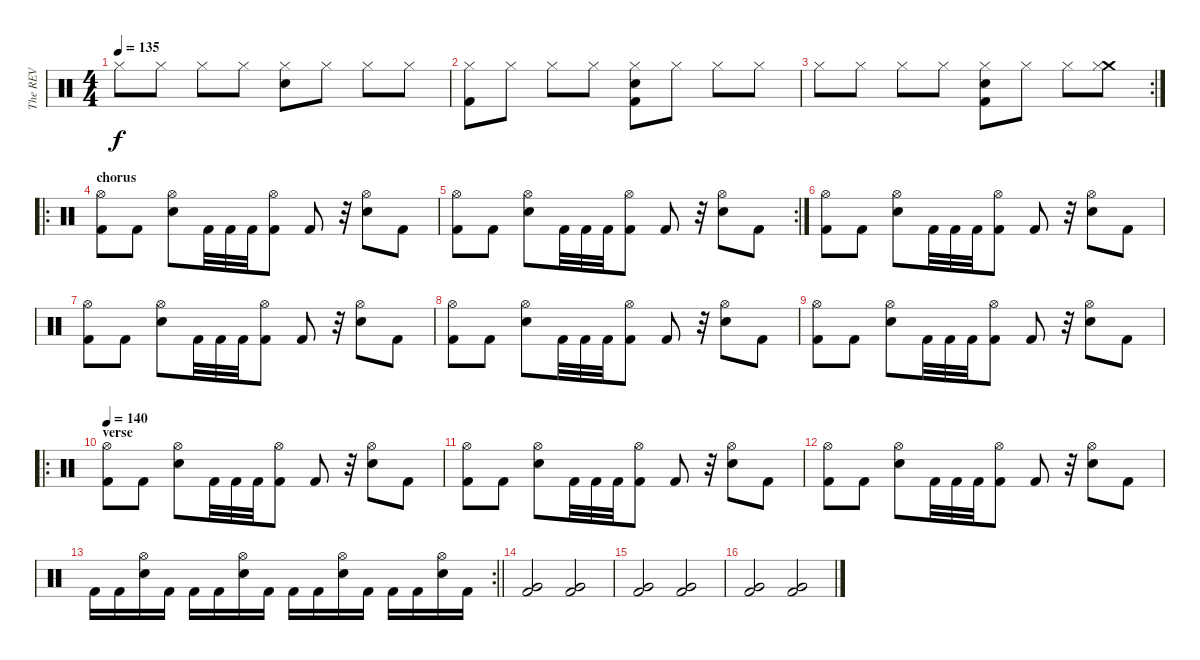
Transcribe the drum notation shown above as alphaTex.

\track ("The REV" "The REV") {instrument percussion}
\staff {score}
\articulation defaults
\ts (4 4)
\tempo 135
\clef neutral
\ks c "Hi-Hat (closed)".8{dy f} "Hi-Hat (closed)".8 "Hi-Hat (closed)".8 "Hi-Hat (closed)".8
("Hi-Hat (closed)" "Electric Snare (hit)").8 "Hi-Hat (closed)".8 "Hi-Hat (closed)".8 "Hi-Hat (closed)".8 |
("Hi-Hat (closed)" "Kick (hit) 2").8 "Hi-Hat (closed)".8 "Hi-Hat (closed)".8 "Hi-Hat (closed)".8 ("Hi-Hat (closed)" "Electric Snare (hit)" "Kick (hit) 2").8 "Hi-Hat (closed)".8 "Hi-Hat (closed)".8 "Hi-Hat (closed)".8 |
\rc 2 "Hi-Hat (closed)".8 "Hi-Hat (closed)".8 "Hi-Hat (closed)".8 "Hi-Hat (closed)".8
("Hi-Hat (closed)" "Electric Snare (hit)" "Kick (hit) 2").8 "Hi-Hat (closed)".8 "Hi-Hat (closed)".8 ("Crash medium (hit)" "Hi-Hat (closed)").8 |
\ro
\section ("" "chorus")
("Hi-Hat (open)" "Kick (hit) 2").8 "Kick (hit) 2".8 ("Hi-Hat (open)" "Electric Snare (hit)").8 "Kick (hit) 2".32 "Kick (hit) 2".32 "Kick (hit) 2".32 ("Hi-Hat (open)" "Kick (hit) 2").8 "Kick (hit) 2".8 r.32 ("Hi-Hat (open)" "Electric Snare (hit)").8 "Kick (hit) 2".8 |
\rc 2
("Hi-Hat (open)" "Kick (hit) 2").8 "Kick (hit) 2".8 ("Hi-Hat (open)" "Electric Snare (hit)").8 "Kick (hit) 2".32 "Kick (hit) 2".32 "Kick (hit) 2".32 ("Hi-Hat (open)" "Kick (hit) 2").8 "Kick (hit) 2".8 r.32 ("Hi-Hat (open)" "Electric Snare (hit)").8 "Kick (hit) 2".8 |
("Hi-Hat (open)" "Kick (hit) 2").8 "Kick (hit) 2".8 ("Hi-Hat (open)" "Electric Snare (hit)").8 "Kick (hit) 2".32 "Kick (hit) 2".32 "Kick (hit) 2".32 ("Hi-Hat (open)" "Kick (hit) 2").8 "Kick (hit) 2".8 r.32 ("Hi-Hat (open)" "Electric Snare (hit)").8 "Kick (hit) 2".8 |
("Hi-Hat (open)" "Kick (hit) 2").8 "Kick (hit) 2".8 ("Hi-Hat (open)" "Electric Snare (hit)").8 "Kick (hit) 2".32 "Kick (hit) 2".32 "Kick (hit) 2".32 ("Hi-Hat (open)" "Kick (hit) 2").8 "Kick (hit) 2".8 r.32 ("Hi-Hat (open)" "Electric Snare (hit)").8 "Kick (hit) 2".8 |
("Hi-Hat (open)" "Kick (hit) 2").8 "Kick (hit) 2".8 ("Hi-Hat (open)" "Electric Snare (hit)").8 "Kick (hit) 2".32 "Kick (hit) 2".32 "Kick (hit) 2".32 ("Hi-Hat (open)" "Kick (hit) 2").8 "Kick (hit) 2".8 r.32 ("Hi-Hat (open)" "Electric Snare (hit)").8 "Kick (hit) 2".8 |
("Hi-Hat (open)" "Kick (hit) 2").8 "Kick (hit) 2".8 ("Hi-Hat (open)" "Electric Snare (hit)").8 "Kick (hit) 2".32 "Kick (hit) 2".32 "Kick (hit) 2".32 ("Hi-Hat (open)" "Kick (hit) 2").8 "Kick (hit) 2".8 r.32 ("Hi-Hat (open)" "Electric Snare (hit)").8 "Kick (hit) 2".8 |
\ro
\section ("" "verse")
\tempo 140
("Hi-Hat (open)" "Kick (hit) 2").8 "Kick (hit) 2".8 ("Hi-Hat (open)" "Electric Snare (hit)").8 "Kick (hit) 2".32 "Kick (hit) 2".32 "Kick (hit) 2".32 ("Hi-Hat (open)" "Kick (hit) 2").8 "Kick (hit) 2".8 r.32 ("Hi-Hat (open)" "Electric Snare (hit)").8 "Kick (hit) 2".8 |
("Hi-Hat (open)" "Kick (hit) 2").8 "Kick (hit) 2".8 ("Hi-Hat (open)" "Electric Snare (hit)").8 "Kick (hit) 2".32 "Kick (hit) 2".32 "Kick (hit) 2".32 ("Hi-Hat (open)" "Kick (hit) 2").8 "Kick (hit) 2".8 r.32 ("Hi-Hat (open)" "Electric Snare (hit)").8 "Kick (hit) 2".8 |
("Hi-Hat (open)" "Kick (hit) 2").8 "Kick (hit) 2".8 ("Hi-Hat (open)" "Electric Snare (hit)").8 "Kick (hit) 2".32 "Kick (hit) 2".32 "Kick (hit) 2".32 ("Hi-Hat (open)" "Kick (hit) 2").8 "Kick (hit) 2".8 r.32 ("Hi-Hat (open)" "Electric Snare (hit)").8 "Kick (hit) 2".8 |
\rc 2
\barLineRight lightlight "Kick (hit) 2".16 "Kick (hit) 2".16
("Hi-Hat (open)" "Electric Snare (hit)").16 "Kick (hit) 2".16 "Kick (hit) 2".16 "Kick (hit) 2".16 ("Hi-Hat (open)" "Electric Snare (hit)").16 "Kick (hit) 2".16 "Kick (hit) 2".16 "Kick (hit) 2".16 ("Hi-Hat (open)" "Electric Snare (hit)").16 "Kick (hit) 2".16 "Kick (hit) 2".16 "Kick (hit) 2".16 ("Hi-Hat (open)" "Electric Snare (hit)").16 "Kick (hit) 2".16 |
("Very Low Tom (hit)" "Kick (hit) 2").2 ("Very Low Tom (hit)" "Kick (hit) 2").2 |
("Very Low Tom (hit)" "Kick (hit) 2").2 ("Very Low Tom (hit)" "Kick (hit) 2").2 |
("Very Low Tom (hit)" "Kick (hit) 2").2 ("Very Low Tom (hit)" "Kick (hit) 2").2
